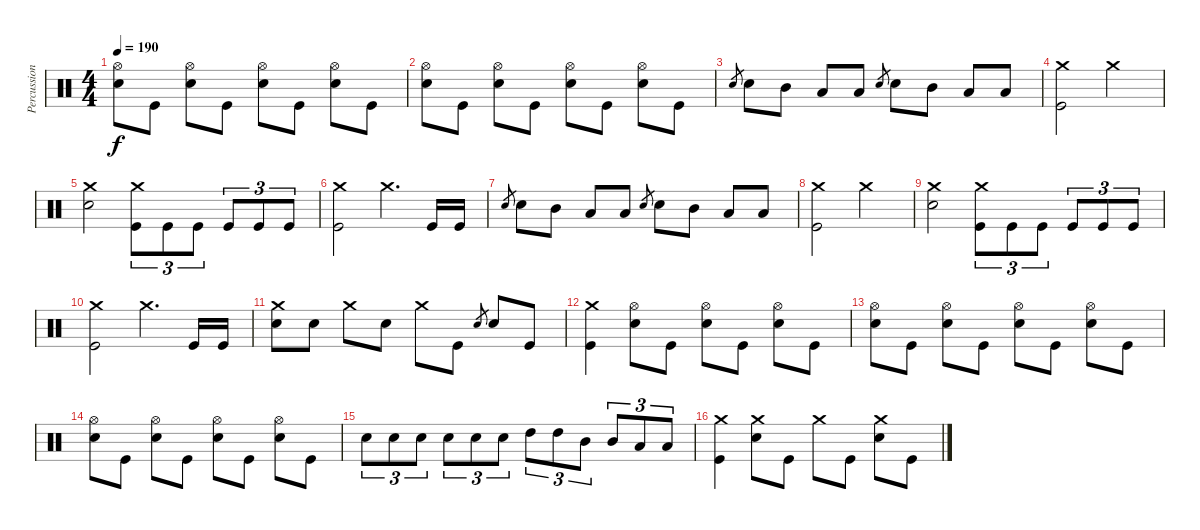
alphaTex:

\track ("Percussion" "Percussion") {instrument percussion}
\staff {score}
\articulation defaults
\ts (4 4)
\tempo 190
\clef neutral
\ks c
("Hi-Hat (open)" "Snare (hit) 2").8{dy f} "Kick (hit)".8 ("Hi-Hat (open)" "Snare (hit) 2").8 "Kick (hit)".8 ("Hi-Hat (open)" "Snare (hit) 2").8 "Kick (hit)".8 ("Hi-Hat (open)" "Snare (hit) 2").8 "Kick (hit)".8 |
("Hi-Hat (open)" "Snare (hit) 2").8 "Kick (hit)".8 ("Hi-Hat (open)" "Snare (hit) 2").8 "Kick (hit)".8 ("Hi-Hat (open)" "Snare (hit) 2").8 "Kick (hit)".8 ("Hi-Hat (open)" "Snare (hit) 2").8 "Kick (hit)".8 |
"Snare (hit) 2".8{gr} "Snare (hit) 2".8 "Mid Tom (hit)".8 "Low Tom (hit)".8 "Low Tom (hit)".8 "Snare (hit) 2".8{gr} "Snare (hit) 2".8 "Mid Tom (hit)".8 "Low Tom (hit)".8 "Low Tom (hit)".8 |
("Crash medium (hit)" "Kick (hit)").2 "Crash medium (hit)".2 |
("Crash medium (hit)" "Snare (hit) 2").2 ("Crash medium (hit)" "Kick (hit)").8{tu (3 2)} "Kick (hit)".8{tu (3 2)} "Kick (hit)".8{tu (3 2)} "Kick (hit)".8{tu (3 2)} "Kick (hit)".8{tu (3 2)} "Kick (hit)".8{tu (3 2)} |
("Crash medium (hit)" "Kick (hit)").2 "Crash medium (hit)".4{d} "Kick (hit)".16 "Kick (hit)".16 |
"Snare (hit) 2".8{gr} "Snare (hit) 2".8 "Mid Tom (hit)".8 "Low Tom (hit)".8 "Low Tom (hit)".8 "Snare (hit) 2".8{gr} "Snare (hit) 2".8 "Mid Tom (hit)".8 "Low Tom (hit)".8 "Low Tom (hit)".8 |
("Crash medium (hit)" "Kick (hit)").2 "Crash medium (hit)".2 |
("Crash medium (hit)" "Snare (hit) 2").2 ("Crash medium (hit)" "Kick (hit)").8{tu (3 2)} "Kick (hit)".8{tu (3 2)} "Kick (hit)".8{tu (3 2)} "Kick (hit)".8{tu (3 2)} "Kick (hit)".8{tu (3 2)} "Kick (hit)".8{tu (3 2)} |
("Crash medium (hit)" "Kick (hit)").2 "Crash medium (hit)".4{d} "Kick (hit)".16 "Kick (hit)".16 |
("Crash medium (hit)" "Snare (hit) 2").8 "Snare (hit) 2".8 "Crash medium (hit)".8 "Snare (hit) 2".8 "Crash medium (hit)".8 "Kick (hit)".8 "Snare (hit) 2".8{gr} "Snare (hit) 2".8 "Kick (hit)".8 |
("Crash medium (hit)" "Kick (hit)").4 ("Hi-Hat (open)" "Snare (hit) 2").8 "Kick (hit)".8 ("Hi-Hat (open)" "Snare (hit) 2").8 "Kick (hit)".8 ("Hi-Hat (open)" "Snare (hit) 2").8 "Kick (hit)".8 |
("Hi-Hat (open)" "Snare (hit) 2").8 "Kick (hit)".8 ("Hi-Hat (open)" "Snare (hit) 2").8 "Kick (hit)".8 ("Hi-Hat (open)" "Snare (hit) 2").8 "Kick (hit)".8 ("Hi-Hat (open)" "Snare (hit) 2").8 "Kick (hit)".8 |
("Hi-Hat (open)" "Snare (hit) 2").8 "Kick (hit)".8 ("Hi-Hat (open)" "Snare (hit) 2").8 "Kick (hit)".8 ("Hi-Hat (open)" "Snare (hit) 2").8 "Kick (hit)".8 ("Hi-Hat (open)" "Snare (hit) 2").8 "Kick (hit)".8 |
"Snare (hit) 2".8{tu (3 2)} "Snare (hit) 2".8{tu (3 2)} "Snare (hit) 2".8{tu (3 2)} "Snare (hit) 2".8{tu (3 2)} "Snare (hit) 2".8{tu (3 2)} "Snare (hit) 2".8{tu (3 2)} "High Tom (hit)".8{tu (3 2)} "High Tom (hit)".8{tu (3 2)} "Mid Tom (hit)".8{tu (3 2)} "Mid Tom (hit)".8{tu (3 2)} "Low Tom (hit)".8{tu (3 2)} "Low Tom (hit)".8{tu (3 2)} |
("Crash medium (hit)" "Kick (hit)").4 ("Crash medium (hit)" "Snare (hit) 2").8 "Kick (hit)".8 "Crash medium (hit)".8 "Kick (hit)".8 ("Crash medium (hit)" "Snare (hit) 2").8 "Kick (hit)".8
